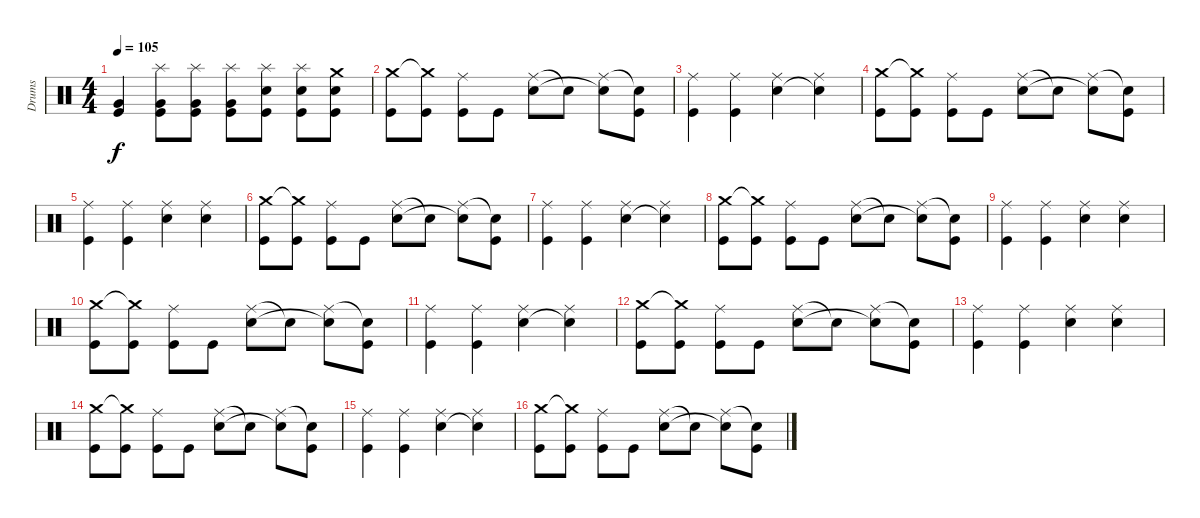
\track ("Drums" "Drums") {instrument percussion}
\staff {score}
\articulation defaults
\ts (4 4)
\tempo 105
\clef neutral
\ks c
("Very Low Tom (hit)" "Kick (hit)").4{dy f} ("Splash (hit)" "Very Low Tom (hit)" "Kick (hit)").8 ("Splash (hit)" "Very Low Tom (hit)" "Kick (hit)").8 ("Splash (hit)" "Very Low Tom (hit)" "Kick (hit)").8 ("Splash (hit)" "Snare (hit) 2" "Kick (hit)").8 ("Splash (hit)" "Snare (hit) 2" "Kick (hit)").8 ("Crash medium (hit)" "Snare (hit) 2" "Kick (hit)").8 |
("Crash medium (hit)" "Kick (hit)").8 ("Crash medium (hit)"{t} "Kick (hit)").8 ("Ride (middle)" "Kick (hit)").8 "Kick (hit)".8 ("Ride (middle)" "Snare (hit) 2").8 "Snare (hit) 2"{t}.8 ("Ride (middle)" "Snare (hit) 2"{t}).8 ("Snare (hit) 2"{t} "Kick (hit)").8 |
("Ride (middle)" "Kick (hit)").4 ("Ride (middle)" "Kick (hit)").4 ("Ride (middle)" "Snare (hit) 2").4 ("Ride (middle)" "Snare (hit) 2"{t}).4 |
("Crash medium (hit)" "Kick (hit)").8 ("Crash medium (hit)"{t} "Kick (hit)").8 ("Ride (middle)" "Kick (hit)").8 "Kick (hit)".8 ("Ride (middle)" "Snare (hit) 2").8 "Snare (hit) 2"{t}.8 ("Ride (middle)" "Snare (hit) 2"{t}).8 ("Snare (hit) 2"{t} "Kick (hit)").8 |
("Ride (middle)" "Kick (hit)").4 ("Ride (middle)" "Kick (hit)").4 ("Ride (middle)" "Snare (hit) 2").4 ("Ride (middle)" "Snare (hit) 2").4 |
("Crash medium (hit)" "Kick (hit)").8 ("Crash medium (hit)"{t} "Kick (hit)").8 ("Ride (middle)" "Kick (hit)").8 "Kick (hit)".8 ("Ride (middle)" "Snare (hit) 2").8 "Snare (hit) 2"{t}.8 ("Ride (middle)" "Snare (hit) 2"{t}).8 ("Snare (hit) 2"{t} "Kick (hit)").8 |
("Ride (middle)" "Kick (hit)").4 ("Ride (middle)" "Kick (hit)").4 ("Ride (middle)" "Snare (hit) 2").4 ("Ride (middle)" "Snare (hit) 2"{t}).4 |
("Crash medium (hit)" "Kick (hit)").8 ("Crash medium (hit)"{t} "Kick (hit)").8 ("Ride (middle)" "Kick (hit)").8 "Kick (hit)".8 ("Ride (middle)" "Snare (hit) 2").8 "Snare (hit) 2"{t}.8 ("Ride (middle)" "Snare (hit) 2"{t}).8 ("Snare (hit) 2"{t} "Kick (hit)").8 |
("Ride (middle)" "Kick (hit)").4 ("Ride (middle)" "Kick (hit)").4 ("Ride (middle)" "Snare (hit) 2").4 ("Ride (middle)" "Snare (hit) 2").4 |
("Crash medium (hit)" "Kick (hit)").8 ("Crash medium (hit)"{t} "Kick (hit)").8 ("Ride (middle)" "Kick (hit)").8 "Kick (hit)".8 ("Ride (middle)" "Snare (hit) 2").8 "Snare (hit) 2"{t}.8 ("Ride (middle)" "Snare (hit) 2"{t}).8 ("Snare (hit) 2"{t} "Kick (hit)").8 |
("Ride (middle)" "Kick (hit)").4 ("Ride (middle)" "Kick (hit)").4 ("Ride (middle)" "Snare (hit) 2").4 ("Ride (middle)" "Snare (hit) 2"{t}).4 |
("Crash medium (hit)" "Kick (hit)").8 ("Crash medium (hit)"{t} "Kick (hit)").8 ("Ride (middle)" "Kick (hit)").8 "Kick (hit)".8 ("Ride (middle)" "Snare (hit) 2").8 "Snare (hit) 2"{t}.8 ("Ride (middle)" "Snare (hit) 2"{t}).8 ("Snare (hit) 2"{t} "Kick (hit)").8 |
("Ride (middle)" "Kick (hit)").4 ("Ride (middle)" "Kick (hit)").4 ("Ride (middle)" "Snare (hit) 2").4 ("Ride (middle)" "Snare (hit) 2").4 |
("Crash medium (hit)" "Kick (hit)").8 ("Crash medium (hit)"{t} "Kick (hit)").8 ("Ride (middle)" "Kick (hit)").8 "Kick (hit)".8 ("Ride (middle)" "Snare (hit) 2").8 "Snare (hit) 2"{t}.8 ("Ride (middle)" "Snare (hit) 2"{t}).8 ("Snare (hit) 2"{t} "Kick (hit)").8 |
("Ride (middle)" "Kick (hit)").4 ("Ride (middle)" "Kick (hit)").4 ("Ride (middle)" "Snare (hit) 2").4 ("Ride (middle)" "Snare (hit) 2"{t}).4 |
("Crash medium (hit)" "Kick (hit)").8 ("Crash medium (hit)"{t} "Kick (hit)").8 ("Ride (middle)" "Kick (hit)").8 "Kick (hit)".8 ("Ride (middle)" "Snare (hit) 2").8 "Snare (hit) 2"{t}.8 ("Ride (middle)" "Snare (hit) 2"{t}).8 ("Snare (hit) 2"{t} "Kick (hit)").8
